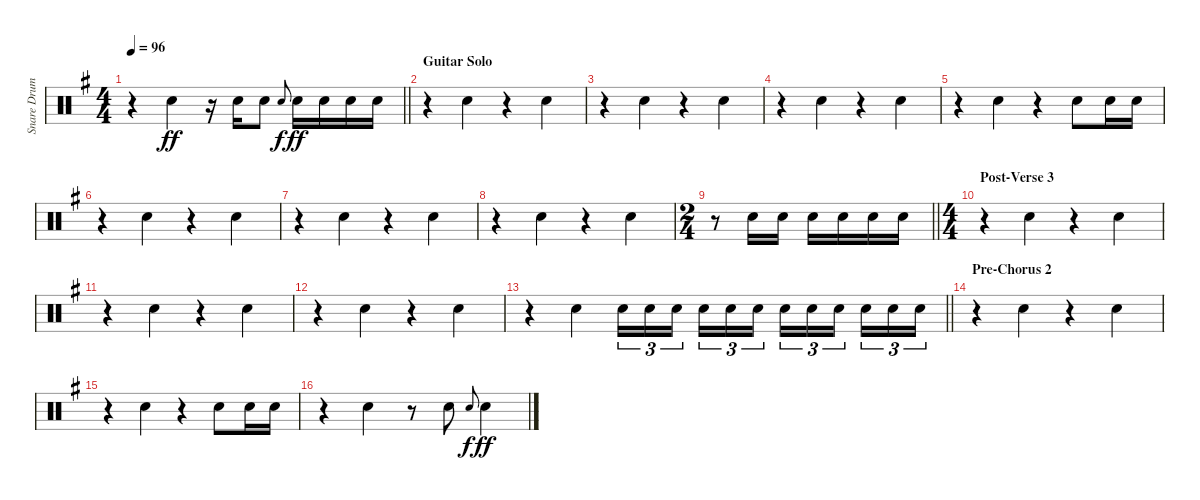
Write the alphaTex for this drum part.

\track ("Snare Drum" "Snare Drum") {instrument percussion}
\staff {score}
\articulation defaults
\ts (4 4)
\tempo 96
\clef neutral
\barLineRight lightlight
\ks g
r.4{dy ff beam merge} "Electric Snare (hit)".4 r.16 "Electric Snare (hit)".16 "Electric Snare (hit)".8 "Electric Snare (hit)".8{gr onbeat dy f} "Electric Snare (hit)".16{dy ff} "Electric Snare (hit)".16 "Electric Snare (hit)".16 "Electric Snare (hit)".16 |
\section ("" "Guitar Solo")
r.4{beam merge} "Electric Snare (hit)".4 r.4{beam merge} "Electric Snare (hit)".4 |
r.4{beam merge} "Electric Snare (hit)".4 r.4{beam merge} "Electric Snare (hit)".4 |
r.4{beam merge} "Electric Snare (hit)".4 r.4{beam merge} "Electric Snare (hit)".4 |
r.4{beam merge} "Electric Snare (hit)".4 r.4{beam merge} "Electric Snare (hit)".8 "Electric Snare (hit)".16 "Electric Snare (hit)".16 |
r.4{beam merge} "Electric Snare (hit)".4 r.4{beam merge} "Electric Snare (hit)".4 |
r.4{beam merge} "Electric Snare (hit)".4 r.4{beam merge} "Electric Snare (hit)".4 |
r.4{beam merge} "Electric Snare (hit)".4 r.4{beam merge} "Electric Snare (hit)".4 |
\ts (2 4)
\barLineRight lightlight
r.8 "Electric Snare (hit)".16 "Electric Snare (hit)".16 "Electric Snare (hit)".16 "Electric Snare (hit)".16 "Electric Snare (hit)".16 "Electric Snare (hit)".16 |
\ts (4 4)
\section ("" "Post-Verse 3")
r.4{beam merge} "Electric Snare (hit)".4 r.4{beam merge} "Electric Snare (hit)".4 |
r.4{beam merge} "Electric Snare (hit)".4 r.4{beam merge} "Electric Snare (hit)".4 |
r.4{beam merge} "Electric Snare (hit)".4 r.4{beam merge} "Electric Snare (hit)".4 |
\barLineRight lightlight
r.4{beam merge} "Electric Snare (hit)".4 "Electric Snare (hit)".16{tu (3 2)} "Electric Snare (hit)".16{tu (3 2)} "Electric Snare (hit)".16{tu (3 2) beam splitsecondary} "Electric Snare (hit)".16{tu (3 2)} "Electric Snare (hit)".16{tu (3 2)} "Electric Snare (hit)".16{tu (3 2)} "Electric Snare (hit)".16{tu (3 2)} "Electric Snare (hit)".16{tu (3 2)} "Electric Snare (hit)".16{tu (3 2) beam splitsecondary} "Electric Snare (hit)".16{tu (3 2)} "Electric Snare (hit)".16{tu (3 2)} "Electric Snare (hit)".16{tu (3 2)} |
\section ("" "Pre-Chorus 2")
r.4{beam merge} "Electric Snare (hit)".4 r.4{beam merge} "Electric Snare (hit)".4 |
r.4{beam merge} "Electric Snare (hit)".4 r.4{beam merge} "Electric Snare (hit)".8 "Electric Snare (hit)".16 "Electric Snare (hit)".16 |
r.4{beam merge} "Electric Snare (hit)".4 r.8 "Electric Snare (hit)".8 "Electric Snare (hit)".8{gr onbeat dy f beam merge} "Electric Snare (hit)".4{dy ff}
